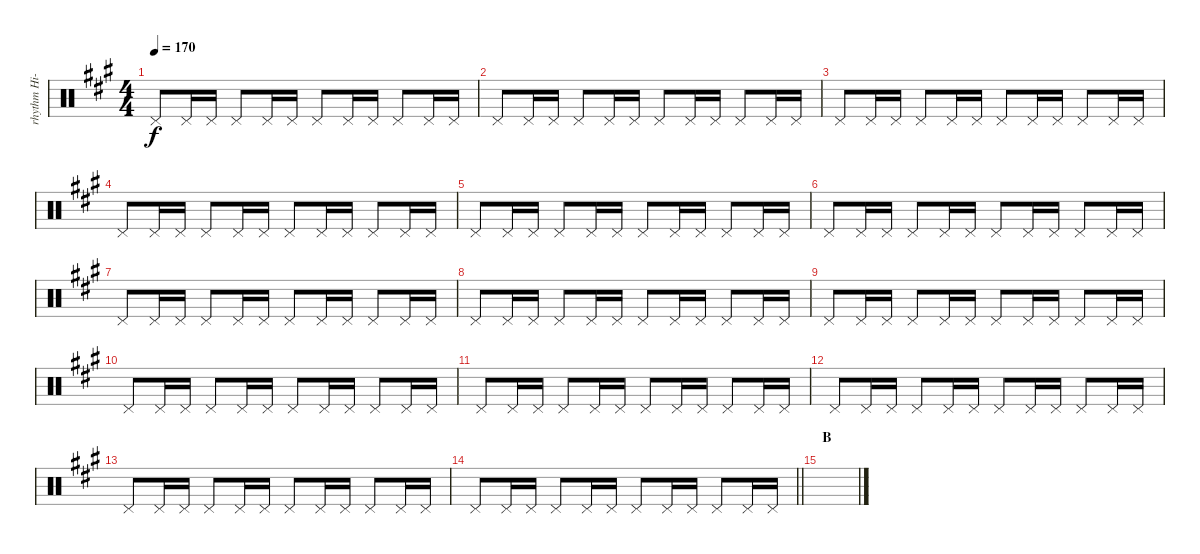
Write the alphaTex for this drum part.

\track ("rhythm Hi-hat" "rhythm Hi-") {instrument percussion}
\staff {score}
\articulation defaults
\ts (4 4)
\tempo 170
\clef neutral
\ks a "Pedal Hi-Hat (hit)".8{dy f} "Pedal Hi-Hat (hit)".16 "Pedal Hi-Hat (hit)".16 "Pedal Hi-Hat (hit)".8 "Pedal Hi-Hat (hit)".16 "Pedal Hi-Hat (hit)".16 "Pedal Hi-Hat (hit)".8 "Pedal Hi-Hat (hit)".16 "Pedal Hi-Hat (hit)".16 "Pedal Hi-Hat (hit)".8 "Pedal Hi-Hat (hit)".16 "Pedal Hi-Hat (hit)".16
|
"Pedal Hi-Hat (hit)".8 "Pedal Hi-Hat (hit)".16 "Pedal Hi-Hat (hit)".16 "Pedal Hi-Hat (hit)".8 "Pedal Hi-Hat (hit)".16 "Pedal Hi-Hat (hit)".16 "Pedal Hi-Hat (hit)".8 "Pedal Hi-Hat (hit)".16 "Pedal Hi-Hat (hit)".16 "Pedal Hi-Hat (hit)".8 "Pedal Hi-Hat (hit)".16 "Pedal Hi-Hat (hit)".16 |
"Pedal Hi-Hat (hit)".8 "Pedal Hi-Hat (hit)".16 "Pedal Hi-Hat (hit)".16 "Pedal Hi-Hat (hit)".8 "Pedal Hi-Hat (hit)".16 "Pedal Hi-Hat (hit)".16 "Pedal Hi-Hat (hit)".8 "Pedal Hi-Hat (hit)".16 "Pedal Hi-Hat (hit)".16 "Pedal Hi-Hat (hit)".8 "Pedal Hi-Hat (hit)".16 "Pedal Hi-Hat (hit)".16 |
"Pedal Hi-Hat (hit)".8 "Pedal Hi-Hat (hit)".16 "Pedal Hi-Hat (hit)".16 "Pedal Hi-Hat (hit)".8 "Pedal Hi-Hat (hit)".16 "Pedal Hi-Hat (hit)".16 "Pedal Hi-Hat (hit)".8 "Pedal Hi-Hat (hit)".16 "Pedal Hi-Hat (hit)".16 "Pedal Hi-Hat (hit)".8 "Pedal Hi-Hat (hit)".16 "Pedal Hi-Hat (hit)".16 |
"Pedal Hi-Hat (hit)".8 "Pedal Hi-Hat (hit)".16 "Pedal Hi-Hat (hit)".16 "Pedal Hi-Hat (hit)".8 "Pedal Hi-Hat (hit)".16 "Pedal Hi-Hat (hit)".16 "Pedal Hi-Hat (hit)".8 "Pedal Hi-Hat (hit)".16 "Pedal Hi-Hat (hit)".16 "Pedal Hi-Hat (hit)".8 "Pedal Hi-Hat (hit)".16 "Pedal Hi-Hat (hit)".16 |
"Pedal Hi-Hat (hit)".8 "Pedal Hi-Hat (hit)".16 "Pedal Hi-Hat (hit)".16 "Pedal Hi-Hat (hit)".8 "Pedal Hi-Hat (hit)".16 "Pedal Hi-Hat (hit)".16 "Pedal Hi-Hat (hit)".8 "Pedal Hi-Hat (hit)".16 "Pedal Hi-Hat (hit)".16 "Pedal Hi-Hat (hit)".8 "Pedal Hi-Hat (hit)".16 "Pedal Hi-Hat (hit)".16 |
"Pedal Hi-Hat (hit)".8 "Pedal Hi-Hat (hit)".16 "Pedal Hi-Hat (hit)".16 "Pedal Hi-Hat (hit)".8 "Pedal Hi-Hat (hit)".16 "Pedal Hi-Hat (hit)".16 "Pedal Hi-Hat (hit)".8 "Pedal Hi-Hat (hit)".16 "Pedal Hi-Hat (hit)".16 "Pedal Hi-Hat (hit)".8 "Pedal Hi-Hat (hit)".16 "Pedal Hi-Hat (hit)".16 |
"Pedal Hi-Hat (hit)".8 "Pedal Hi-Hat (hit)".16 "Pedal Hi-Hat (hit)".16 "Pedal Hi-Hat (hit)".8 "Pedal Hi-Hat (hit)".16 "Pedal Hi-Hat (hit)".16 "Pedal Hi-Hat (hit)".8 "Pedal Hi-Hat (hit)".16 "Pedal Hi-Hat (hit)".16 "Pedal Hi-Hat (hit)".8 "Pedal Hi-Hat (hit)".16 "Pedal Hi-Hat (hit)".16 |
"Pedal Hi-Hat (hit)".8 "Pedal Hi-Hat (hit)".16 "Pedal Hi-Hat (hit)".16 "Pedal Hi-Hat (hit)".8 "Pedal Hi-Hat (hit)".16 "Pedal Hi-Hat (hit)".16 "Pedal Hi-Hat (hit)".8 "Pedal Hi-Hat (hit)".16 "Pedal Hi-Hat (hit)".16 "Pedal Hi-Hat (hit)".8 "Pedal Hi-Hat (hit)".16 "Pedal Hi-Hat (hit)".16 |
"Pedal Hi-Hat (hit)".8 "Pedal Hi-Hat (hit)".16 "Pedal Hi-Hat (hit)".16 "Pedal Hi-Hat (hit)".8 "Pedal Hi-Hat (hit)".16 "Pedal Hi-Hat (hit)".16 "Pedal Hi-Hat (hit)".8 "Pedal Hi-Hat (hit)".16 "Pedal Hi-Hat (hit)".16 "Pedal Hi-Hat (hit)".8 "Pedal Hi-Hat (hit)".16 "Pedal Hi-Hat (hit)".16 |
"Pedal Hi-Hat (hit)".8 "Pedal Hi-Hat (hit)".16 "Pedal Hi-Hat (hit)".16 "Pedal Hi-Hat (hit)".8 "Pedal Hi-Hat (hit)".16 "Pedal Hi-Hat (hit)".16 "Pedal Hi-Hat (hit)".8 "Pedal Hi-Hat (hit)".16 "Pedal Hi-Hat (hit)".16 "Pedal Hi-Hat (hit)".8 "Pedal Hi-Hat (hit)".16 "Pedal Hi-Hat (hit)".16 |
"Pedal Hi-Hat (hit)".8 "Pedal Hi-Hat (hit)".16 "Pedal Hi-Hat (hit)".16 "Pedal Hi-Hat (hit)".8 "Pedal Hi-Hat (hit)".16 "Pedal Hi-Hat (hit)".16 "Pedal Hi-Hat (hit)".8 "Pedal Hi-Hat (hit)".16 "Pedal Hi-Hat (hit)".16 "Pedal Hi-Hat (hit)".8 "Pedal Hi-Hat (hit)".16 "Pedal Hi-Hat (hit)".16 |
"Pedal Hi-Hat (hit)".8 "Pedal Hi-Hat (hit)".16 "Pedal Hi-Hat (hit)".16 "Pedal Hi-Hat (hit)".8 "Pedal Hi-Hat (hit)".16 "Pedal Hi-Hat (hit)".16 "Pedal Hi-Hat (hit)".8 "Pedal Hi-Hat (hit)".16 "Pedal Hi-Hat (hit)".16 "Pedal Hi-Hat (hit)".8 "Pedal Hi-Hat (hit)".16 "Pedal Hi-Hat (hit)".16 |
\barLineRight lightlight "Pedal Hi-Hat (hit)".8 "Pedal Hi-Hat (hit)".16 "Pedal Hi-Hat (hit)".16 "Pedal Hi-Hat (hit)".8 "Pedal Hi-Hat (hit)".16 "Pedal Hi-Hat (hit)".16 "Pedal Hi-Hat (hit)".8 "Pedal Hi-Hat (hit)".16 "Pedal Hi-Hat (hit)".16 "Pedal Hi-Hat (hit)".8 "Pedal Hi-Hat (hit)".16 "Pedal Hi-Hat (hit)".16
|
\section ("" "B")
